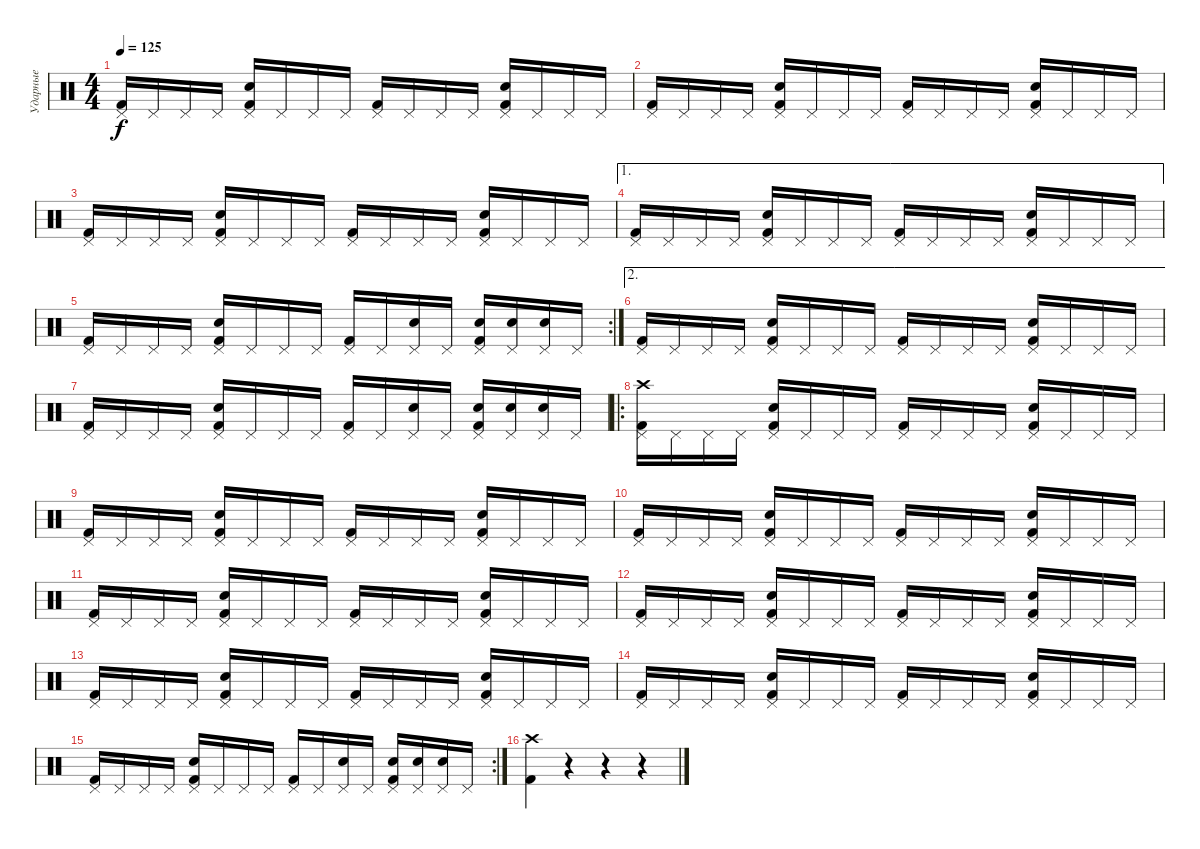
\track ("Ударные" "Ударные") {instrument percussion}
\staff {score}
\articulation defaults
\ts (4 4)
\tempo 125
\clef neutral
\ks c
("Kick (hit) 2" "Pedal Hi-Hat (hit)").16{dy f} "Pedal Hi-Hat (hit)".16 "Pedal Hi-Hat (hit)".16 "Pedal Hi-Hat (hit)".16 ("Kick (hit) 2" "Pedal Hi-Hat (hit)" "Snare (hit) 2").16 "Pedal Hi-Hat (hit)".16 "Pedal Hi-Hat (hit)".16 "Pedal Hi-Hat (hit)".16 ("Kick (hit) 2" "Pedal Hi-Hat (hit)").16 "Pedal Hi-Hat (hit)".16 "Pedal Hi-Hat (hit)".16 "Pedal Hi-Hat (hit)".16 ("Kick (hit) 2" "Pedal Hi-Hat (hit)" "Snare (hit) 2").16 "Pedal Hi-Hat (hit)".16 "Pedal Hi-Hat (hit)".16 "Pedal Hi-Hat (hit)".16 |
("Kick (hit) 2" "Pedal Hi-Hat (hit)").16 "Pedal Hi-Hat (hit)".16 "Pedal Hi-Hat (hit)".16 "Pedal Hi-Hat (hit)".16 ("Kick (hit) 2" "Pedal Hi-Hat (hit)" "Snare (hit) 2").16 "Pedal Hi-Hat (hit)".16 "Pedal Hi-Hat (hit)".16 "Pedal Hi-Hat (hit)".16 ("Kick (hit) 2" "Pedal Hi-Hat (hit)").16 "Pedal Hi-Hat (hit)".16 "Pedal Hi-Hat (hit)".16 "Pedal Hi-Hat (hit)".16 ("Kick (hit) 2" "Pedal Hi-Hat (hit)" "Snare (hit) 2").16 "Pedal Hi-Hat (hit)".16 "Pedal Hi-Hat (hit)".16 "Pedal Hi-Hat (hit)".16 |
("Kick (hit) 2" "Pedal Hi-Hat (hit)").16 "Pedal Hi-Hat (hit)".16 "Pedal Hi-Hat (hit)".16 "Pedal Hi-Hat (hit)".16 ("Kick (hit) 2" "Pedal Hi-Hat (hit)" "Snare (hit) 2").16 "Pedal Hi-Hat (hit)".16 "Pedal Hi-Hat (hit)".16 "Pedal Hi-Hat (hit)".16 ("Kick (hit) 2" "Pedal Hi-Hat (hit)").16 "Pedal Hi-Hat (hit)".16 "Pedal Hi-Hat (hit)".16 "Pedal Hi-Hat (hit)".16 ("Kick (hit) 2" "Pedal Hi-Hat (hit)" "Snare (hit) 2").16 "Pedal Hi-Hat (hit)".16 "Pedal Hi-Hat (hit)".16 "Pedal Hi-Hat (hit)".16 |
\ae 1
("Kick (hit) 2" "Pedal Hi-Hat (hit)").16 "Pedal Hi-Hat (hit)".16 "Pedal Hi-Hat (hit)".16 "Pedal Hi-Hat (hit)".16 ("Kick (hit) 2" "Pedal Hi-Hat (hit)" "Snare (hit) 2").16 "Pedal Hi-Hat (hit)".16 "Pedal Hi-Hat (hit)".16 "Pedal Hi-Hat (hit)".16 ("Kick (hit) 2" "Pedal Hi-Hat (hit)").16 "Pedal Hi-Hat (hit)".16 "Pedal Hi-Hat (hit)".16 "Pedal Hi-Hat (hit)".16 ("Kick (hit) 2" "Pedal Hi-Hat (hit)" "Snare (hit) 2").16 "Pedal Hi-Hat (hit)".16 "Pedal Hi-Hat (hit)".16 "Pedal Hi-Hat (hit)".16 |
\rc 2
("Kick (hit) 2" "Pedal Hi-Hat (hit)").16 "Pedal Hi-Hat (hit)".16 "Pedal Hi-Hat (hit)".16 "Pedal Hi-Hat (hit)".16 ("Kick (hit) 2" "Pedal Hi-Hat (hit)" "Snare (hit) 2").16 "Pedal Hi-Hat (hit)".16 "Pedal Hi-Hat (hit)".16 "Pedal Hi-Hat (hit)".16 ("Kick (hit) 2" "Pedal Hi-Hat (hit)").16 "Pedal Hi-Hat (hit)".16 ("Pedal Hi-Hat (hit)" "Snare (hit) 2").16 "Pedal Hi-Hat (hit)".16 ("Kick (hit) 2" "Pedal Hi-Hat (hit)" "Snare (hit) 2").16 ("Pedal Hi-Hat (hit)" "Snare (hit) 2").16 ("Pedal Hi-Hat (hit)" "Snare (hit) 2").16 "Pedal Hi-Hat (hit)".16 |
\ae 2
("Kick (hit) 2" "Pedal Hi-Hat (hit)").16 "Pedal Hi-Hat (hit)".16 "Pedal Hi-Hat (hit)".16 "Pedal Hi-Hat (hit)".16 ("Kick (hit) 2" "Pedal Hi-Hat (hit)" "Snare (hit) 2").16 "Pedal Hi-Hat (hit)".16 "Pedal Hi-Hat (hit)".16 "Pedal Hi-Hat (hit)".16 ("Kick (hit) 2" "Pedal Hi-Hat (hit)").16 "Pedal Hi-Hat (hit)".16 "Pedal Hi-Hat (hit)".16 "Pedal Hi-Hat (hit)".16 ("Kick (hit) 2" "Pedal Hi-Hat (hit)" "Snare (hit) 2").16 "Pedal Hi-Hat (hit)".16 "Pedal Hi-Hat (hit)".16 "Pedal Hi-Hat (hit)".16 |
("Kick (hit) 2" "Pedal Hi-Hat (hit)").16 "Pedal Hi-Hat (hit)".16 "Pedal Hi-Hat (hit)".16 "Pedal Hi-Hat (hit)".16 ("Kick (hit) 2" "Pedal Hi-Hat (hit)" "Snare (hit) 2").16 "Pedal Hi-Hat (hit)".16 "Pedal Hi-Hat (hit)".16 "Pedal Hi-Hat (hit)".16 ("Kick (hit) 2" "Pedal Hi-Hat (hit)").16 "Pedal Hi-Hat (hit)".16 ("Pedal Hi-Hat (hit)" "Snare (hit) 2").16 "Pedal Hi-Hat (hit)".16 ("Kick (hit) 2" "Pedal Hi-Hat (hit)" "Snare (hit) 2").16 ("Pedal Hi-Hat (hit)" "Snare (hit) 2").16 ("Pedal Hi-Hat (hit)" "Snare (hit) 2").16 "Pedal Hi-Hat (hit)".16 |
\ro
("Kick (hit) 2" "Pedal Hi-Hat (hit)" "Crash high (hit)").16 "Pedal Hi-Hat (hit)".16 "Pedal Hi-Hat (hit)".16 "Pedal Hi-Hat (hit)".16 ("Kick (hit) 2" "Pedal Hi-Hat (hit)" "Snare (hit) 2").16 "Pedal Hi-Hat (hit)".16 "Pedal Hi-Hat (hit)".16 "Pedal Hi-Hat (hit)".16 ("Kick (hit) 2" "Pedal Hi-Hat (hit)").16 "Pedal Hi-Hat (hit)".16 "Pedal Hi-Hat (hit)".16 "Pedal Hi-Hat (hit)".16 ("Kick (hit) 2" "Pedal Hi-Hat (hit)" "Snare (hit) 2").16 "Pedal Hi-Hat (hit)".16 "Pedal Hi-Hat (hit)".16 "Pedal Hi-Hat (hit)".16 |
("Kick (hit) 2" "Pedal Hi-Hat (hit)").16 "Pedal Hi-Hat (hit)".16 "Pedal Hi-Hat (hit)".16 "Pedal Hi-Hat (hit)".16 ("Kick (hit) 2" "Pedal Hi-Hat (hit)" "Snare (hit) 2").16 "Pedal Hi-Hat (hit)".16 "Pedal Hi-Hat (hit)".16 "Pedal Hi-Hat (hit)".16 ("Kick (hit) 2" "Pedal Hi-Hat (hit)").16 "Pedal Hi-Hat (hit)".16 "Pedal Hi-Hat (hit)".16 "Pedal Hi-Hat (hit)".16 ("Kick (hit) 2" "Pedal Hi-Hat (hit)" "Snare (hit) 2").16 "Pedal Hi-Hat (hit)".16 "Pedal Hi-Hat (hit)".16 "Pedal Hi-Hat (hit)".16 |
("Kick (hit) 2" "Pedal Hi-Hat (hit)").16 "Pedal Hi-Hat (hit)".16 "Pedal Hi-Hat (hit)".16 "Pedal Hi-Hat (hit)".16 ("Kick (hit) 2" "Pedal Hi-Hat (hit)" "Snare (hit) 2").16 "Pedal Hi-Hat (hit)".16 "Pedal Hi-Hat (hit)".16 "Pedal Hi-Hat (hit)".16 ("Kick (hit) 2" "Pedal Hi-Hat (hit)").16 "Pedal Hi-Hat (hit)".16 "Pedal Hi-Hat (hit)".16 "Pedal Hi-Hat (hit)".16 ("Kick (hit) 2" "Pedal Hi-Hat (hit)" "Snare (hit) 2").16 "Pedal Hi-Hat (hit)".16 "Pedal Hi-Hat (hit)".16 "Pedal Hi-Hat (hit)".16 |
("Kick (hit) 2" "Pedal Hi-Hat (hit)").16 "Pedal Hi-Hat (hit)".16 "Pedal Hi-Hat (hit)".16 "Pedal Hi-Hat (hit)".16 ("Kick (hit) 2" "Pedal Hi-Hat (hit)" "Snare (hit) 2").16 "Pedal Hi-Hat (hit)".16 "Pedal Hi-Hat (hit)".16 "Pedal Hi-Hat (hit)".16 ("Kick (hit) 2" "Pedal Hi-Hat (hit)").16 "Pedal Hi-Hat (hit)".16 "Pedal Hi-Hat (hit)".16 "Pedal Hi-Hat (hit)".16 ("Kick (hit) 2" "Pedal Hi-Hat (hit)" "Snare (hit) 2").16 "Pedal Hi-Hat (hit)".16 "Pedal Hi-Hat (hit)".16 "Pedal Hi-Hat (hit)".16 |
("Kick (hit) 2" "Pedal Hi-Hat (hit)").16 "Pedal Hi-Hat (hit)".16 "Pedal Hi-Hat (hit)".16 "Pedal Hi-Hat (hit)".16 ("Kick (hit) 2" "Pedal Hi-Hat (hit)" "Snare (hit) 2").16 "Pedal Hi-Hat (hit)".16 "Pedal Hi-Hat (hit)".16 "Pedal Hi-Hat (hit)".16 ("Kick (hit) 2" "Pedal Hi-Hat (hit)").16 "Pedal Hi-Hat (hit)".16 "Pedal Hi-Hat (hit)".16 "Pedal Hi-Hat (hit)".16 ("Kick (hit) 2" "Pedal Hi-Hat (hit)" "Snare (hit) 2").16 "Pedal Hi-Hat (hit)".16 "Pedal Hi-Hat (hit)".16 "Pedal Hi-Hat (hit)".16 |
("Kick (hit) 2" "Pedal Hi-Hat (hit)").16 "Pedal Hi-Hat (hit)".16 "Pedal Hi-Hat (hit)".16 "Pedal Hi-Hat (hit)".16 ("Kick (hit) 2" "Pedal Hi-Hat (hit)" "Snare (hit) 2").16 "Pedal Hi-Hat (hit)".16 "Pedal Hi-Hat (hit)".16 "Pedal Hi-Hat (hit)".16 ("Kick (hit) 2" "Pedal Hi-Hat (hit)").16 "Pedal Hi-Hat (hit)".16 "Pedal Hi-Hat (hit)".16 "Pedal Hi-Hat (hit)".16 ("Kick (hit) 2" "Pedal Hi-Hat (hit)" "Snare (hit) 2").16 "Pedal Hi-Hat (hit)".16 "Pedal Hi-Hat (hit)".16 "Pedal Hi-Hat (hit)".16 |
("Kick (hit) 2" "Pedal Hi-Hat (hit)").16 "Pedal Hi-Hat (hit)".16 "Pedal Hi-Hat (hit)".16 "Pedal Hi-Hat (hit)".16 ("Kick (hit) 2" "Pedal Hi-Hat (hit)" "Snare (hit) 2").16 "Pedal Hi-Hat (hit)".16 "Pedal Hi-Hat (hit)".16 "Pedal Hi-Hat (hit)".16 ("Kick (hit) 2" "Pedal Hi-Hat (hit)").16 "Pedal Hi-Hat (hit)".16 "Pedal Hi-Hat (hit)".16 "Pedal Hi-Hat (hit)".16 ("Kick (hit) 2" "Pedal Hi-Hat (hit)" "Snare (hit) 2").16 "Pedal Hi-Hat (hit)".16 "Pedal Hi-Hat (hit)".16 "Pedal Hi-Hat (hit)".16 |
\rc 2
("Kick (hit) 2" "Pedal Hi-Hat (hit)").16 "Pedal Hi-Hat (hit)".16 "Pedal Hi-Hat (hit)".16 "Pedal Hi-Hat (hit)".16 ("Kick (hit) 2" "Pedal Hi-Hat (hit)" "Snare (hit) 2").16 "Pedal Hi-Hat (hit)".16 "Pedal Hi-Hat (hit)".16 "Pedal Hi-Hat (hit)".16 ("Kick (hit) 2" "Pedal Hi-Hat (hit)").16 "Pedal Hi-Hat (hit)".16 ("Pedal Hi-Hat (hit)" "Snare (hit) 2").16 "Pedal Hi-Hat (hit)".16 ("Kick (hit) 2" "Pedal Hi-Hat (hit)" "Snare (hit) 2").16 ("Pedal Hi-Hat (hit)" "Snare (hit) 2").16 ("Pedal Hi-Hat (hit)" "Snare (hit) 2").16 "Pedal Hi-Hat (hit)".16 |
("Kick (hit) 2" "Crash high (hit)").4 r.4 r.4 r.4
